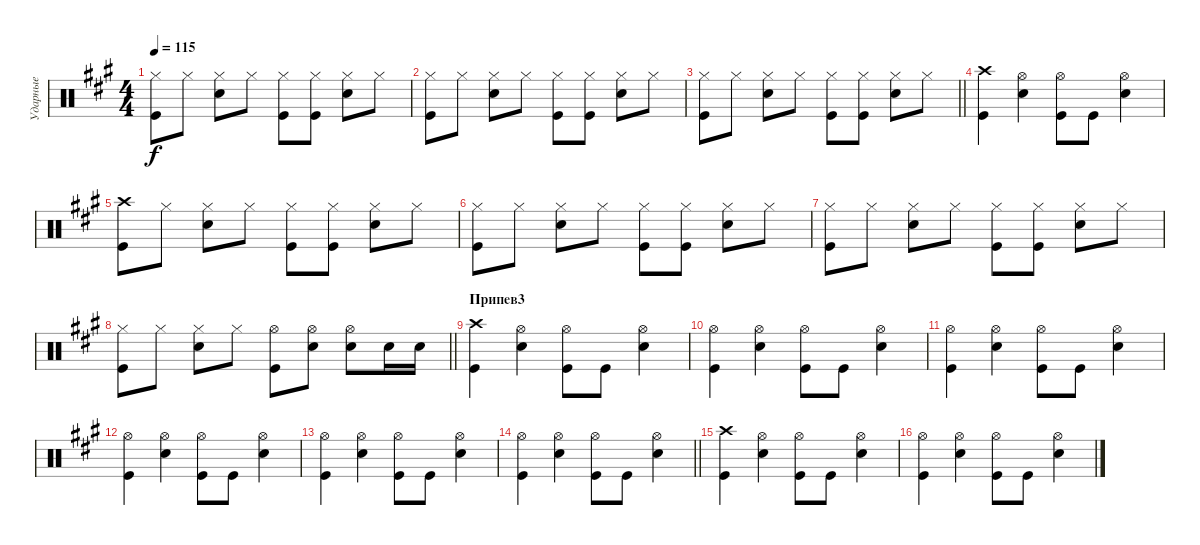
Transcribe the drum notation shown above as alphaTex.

\track ("Ударные" "Ударные") {instrument percussion}
\staff {score}
\articulation defaults
\ts (4 4)
\tempo 115
\clef neutral
\ks a
("Hi-Hat (closed)" "Kick (hit)").8{dy f} "Hi-Hat (closed)".8 ("Snare (hit) 2" "Hi-Hat (closed)").8 "Hi-Hat (closed)".8 ("Hi-Hat (closed)" "Kick (hit)").8 ("Kick (hit)" "Hi-Hat (closed)").8 ("Hi-Hat (closed)" "Snare (hit) 2").8 "Hi-Hat (closed)".8 |
("Hi-Hat (closed)" "Kick (hit)").8 "Hi-Hat (closed)".8 ("Snare (hit) 2" "Hi-Hat (closed)").8 "Hi-Hat (closed)".8 ("Hi-Hat (closed)" "Kick (hit)").8 ("Kick (hit)" "Hi-Hat (closed)").8 ("Hi-Hat (closed)" "Snare (hit) 2").8 "Hi-Hat (closed)".8 |
\barLineRight lightlight
("Hi-Hat (closed)" "Kick (hit)").8 "Hi-Hat (closed)".8 ("Snare (hit) 2" "Hi-Hat (closed)").8 "Hi-Hat (closed)".8 ("Hi-Hat (closed)" "Kick (hit)").8 ("Kick (hit)" "Hi-Hat (closed)").8 ("Hi-Hat (closed)" "Snare (hit) 2").8 "Hi-Hat (closed)".8 |
("Crash high (hit)" "Kick (hit)").4 ("Hi-Hat (open)" "Snare (hit) 2").4 ("Hi-Hat (open)" "Kick (hit)").8 "Kick (hit)".8 ("Hi-Hat (open)" "Snare (hit) 2").4 |
("Crash high (hit)" "Kick (hit)").8 "Hi-Hat (closed)".8 ("Hi-Hat (closed)" "Snare (hit) 2").8 "Hi-Hat (closed)".8 ("Hi-Hat (closed)" "Kick (hit)").8 ("Kick (hit)" "Hi-Hat (closed)").8 ("Hi-Hat (closed)" "Snare (hit) 2").8 "Hi-Hat (closed)".8 |
("Hi-Hat (closed)" "Kick (hit)").8 "Hi-Hat (closed)".8 ("Snare (hit) 2" "Hi-Hat (closed)").8 "Hi-Hat (closed)".8 ("Hi-Hat (closed)" "Kick (hit)").8 ("Kick (hit)" "Hi-Hat (closed)").8 ("Hi-Hat (closed)" "Snare (hit) 2").8 "Hi-Hat (closed)".8 |
("Hi-Hat (closed)" "Kick (hit)").8 "Hi-Hat (closed)".8 ("Snare (hit) 2" "Hi-Hat (closed)").8 "Hi-Hat (closed)".8 ("Hi-Hat (closed)" "Kick (hit)").8 ("Kick (hit)" "Hi-Hat (closed)").8 ("Hi-Hat (closed)" "Snare (hit) 2").8 "Hi-Hat (closed)".8 |
\barLineRight lightlight
("Kick (hit)" "Hi-Hat (closed)").8 "Hi-Hat (closed)".8 ("Hi-Hat (closed)" "Snare (hit) 2").8 "Hi-Hat (closed)".8 ("Hi-Hat (open)" "Kick (hit)").8 ("Hi-Hat (open)" "Snare (hit) 2").8 ("Snare (hit) 2" "Hi-Hat (open)").8 "Snare (hit) 2".16 "Snare (hit) 2".16 |
\section ("" "Припев3")
("Crash high (hit)" "Kick (hit)").4 ("Hi-Hat (open)" "Snare (hit) 2").4 ("Hi-Hat (open)" "Kick (hit)").8 "Kick (hit)".8 ("Hi-Hat (open)" "Snare (hit) 2").4 |
("Hi-Hat (open)" "Kick (hit)").4 ("Hi-Hat (open)" "Snare (hit) 2").4 ("Hi-Hat (open)" "Kick (hit)").8 "Kick (hit)".8 ("Hi-Hat (open)" "Snare (hit) 2").4 |
("Hi-Hat (open)" "Kick (hit)").4 ("Hi-Hat (open)" "Snare (hit) 2").4 ("Hi-Hat (open)" "Kick (hit)").8 "Kick (hit)".8 ("Hi-Hat (open)" "Snare (hit) 2").4 |
("Hi-Hat (open)" "Kick (hit)").4 ("Hi-Hat (open)" "Snare (hit) 2").4 ("Hi-Hat (open)" "Kick (hit)").8 "Kick (hit)".8 ("Hi-Hat (open)" "Snare (hit) 2").4 |
("Hi-Hat (open)" "Kick (hit)").4 ("Hi-Hat (open)" "Snare (hit) 2").4 ("Hi-Hat (open)" "Kick (hit)").8 "Kick (hit)".8 ("Hi-Hat (open)" "Snare (hit) 2").4 |
\barLineRight lightlight
("Hi-Hat (open)" "Kick (hit)").4 ("Hi-Hat (open)" "Snare (hit) 2").4 ("Hi-Hat (open)" "Kick (hit)").8 "Kick (hit)".8 ("Hi-Hat (open)" "Snare (hit) 2").4 |
("Crash high (hit)" "Kick (hit)").4 ("Hi-Hat (open)" "Snare (hit) 2").4 ("Hi-Hat (open)" "Kick (hit)").8 "Kick (hit)".8 ("Hi-Hat (open)" "Snare (hit) 2").4 |
("Hi-Hat (open)" "Kick (hit)").4 ("Hi-Hat (open)" "Snare (hit) 2").4 ("Hi-Hat (open)" "Kick (hit)").8 "Kick (hit)".8 ("Hi-Hat (open)" "Snare (hit) 2").4
